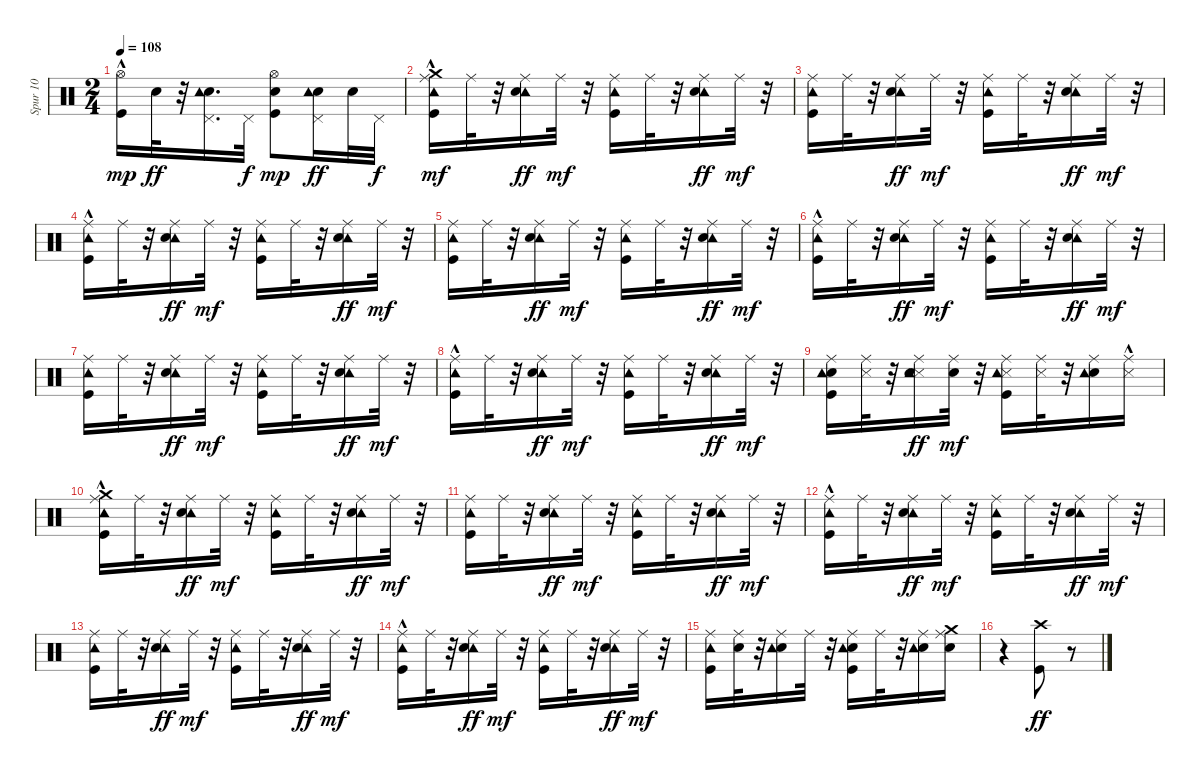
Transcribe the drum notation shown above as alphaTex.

\track ("Spur 10" "Spur 10") {instrument percussion}
\staff {score}
\articulation defaults
\ts (2 4)
\tempo 108
\clef neutral
\ks c
("Hi-Hat (open)"{hac} "Kick (hit)").16{dy mp} "Electric Snare (hit)".32{dy ff} r.32 ("Electric Snare (hit)" "Tambourine (hit)" "Pedal Hi-Hat (hit)").16{d} "Pedal Hi-Hat (hit)".32{dy f} ("Electric Snare (hit)" "Hi-Hat (open)" "Kick (hit)").8{dy mp} ("Electric Snare (hit)" "Tambourine (hit)" "Pedal Hi-Hat (hit)").16{dy ff} "Electric Snare (hit)".32 "Pedal Hi-Hat (hit)".32{dy f} |
("Crash medium (hit)" "Tambourine (hit)" "Ride (middle)" "Kick (hit)"{hac}).16{dy mf} "Ride (middle)".32 r.32 ("Tambourine (hit)" "Ride (middle)" "Electric Snare (hit)").16{dy ff} "Ride (middle)".32{dy mf} r.32 ("Tambourine (hit)" "Ride (middle)" "Kick (hit)").16 "Ride (middle)".32 r.32 ("Tambourine (hit)" "Ride (middle)" "Electric Snare (hit)").16{dy ff} "Ride (middle)".32{dy mf} r.32 |
("Tambourine (hit)" "Ride (middle)" "Kick (hit)").16 "Ride (middle)".32 r.32 ("Tambourine (hit)" "Ride (middle)" "Electric Snare (hit)").16{dy ff} "Ride (middle)".32{dy mf} r.32 ("Tambourine (hit)" "Ride (middle)" "Kick (hit)").16 "Ride (middle)".32 r.32 ("Tambourine (hit)" "Ride (middle)" "Electric Snare (hit)").16{dy ff} "Ride (middle)".32{dy mf} r.32 |
("Tambourine (hit)" "Ride (middle)" "Kick (hit)"{hac}).16 "Ride (middle)".32 r.32 ("Tambourine (hit)" "Ride (middle)" "Electric Snare (hit)").16{dy ff} "Ride (middle)".32{dy mf} r.32 ("Tambourine (hit)" "Ride (middle)" "Kick (hit)").16 "Ride (middle)".32 r.32 ("Tambourine (hit)" "Ride (middle)" "Electric Snare (hit)").16{dy ff} "Ride (middle)".32{dy mf} r.32 |
("Tambourine (hit)" "Ride (middle)" "Kick (hit)").16 "Ride (middle)".32 r.32 ("Tambourine (hit)" "Ride (middle)" "Electric Snare (hit)").16{dy ff} "Ride (middle)".32{dy mf} r.32 ("Tambourine (hit)" "Ride (middle)" "Kick (hit)").16 "Ride (middle)".32 r.32 ("Tambourine (hit)" "Ride (middle)" "Electric Snare (hit)").16{dy ff} "Ride (middle)".32{dy mf} r.32 |
("Tambourine (hit)" "Ride (middle)" "Kick (hit)"{hac}).16 "Ride (middle)".32 r.32 ("Tambourine (hit)" "Ride (middle)" "Electric Snare (hit)").16{dy ff} "Ride (middle)".32{dy mf} r.32 ("Tambourine (hit)" "Ride (middle)" "Kick (hit)").16 "Ride (middle)".32 r.32 ("Tambourine (hit)" "Ride (middle)" "Electric Snare (hit)").16{dy ff} "Ride (middle)".32{dy mf} r.32 |
("Tambourine (hit)" "Ride (middle)" "Kick (hit)").16 "Ride (middle)".32 r.32 ("Tambourine (hit)" "Ride (middle)" "Electric Snare (hit)").16{dy ff} "Ride (middle)".32{dy mf} r.32 ("Tambourine (hit)" "Ride (middle)" "Kick (hit)").16 "Ride (middle)".32 r.32 ("Tambourine (hit)" "Ride (middle)" "Electric Snare (hit)").16{dy ff} "Ride (middle)".32{dy mf} r.32 |
("Tambourine (hit)" "Ride (middle)" "Kick (hit)"{hac}).16 "Ride (middle)".32 r.32 ("Tambourine (hit)" "Ride (middle)" "Electric Snare (hit)").16{dy ff} "Ride (middle)".32{dy mf} r.32 ("Tambourine (hit)" "Ride (middle)" "Kick (hit)").16 "Ride (middle)".32 r.32 ("Tambourine (hit)" "Ride (middle)" "Electric Snare (hit)").16{dy ff} "Ride (middle)".32{dy mf} r.32 |
("Electric Snare (hit)" "Tambourine (hit)" "Ride (middle)" "Kick (hit)").16 ("Snare (side stick) 3" "Ride (middle)").32 r.32 ("Snare (side stick) 3" "Tambourine (hit)" "Ride (middle)" "Electric Snare (hit)").16{dy ff} ("Electric Snare (hit)" "Ride (middle)").32{dy mf} r.32 ("Snare (side stick) 3" "Tambourine (hit)" "Ride (middle)" "Kick (hit)").16 ("Snare (side stick) 3" "Ride (middle)").32 r.32 ("Electric Snare (hit)" "Tambourine (hit)" "Ride (middle)").16 ("Snare (side stick) 3"{hac} "Ride (middle)").16 |
("Crash medium (hit)" "Tambourine (hit)" "Ride (middle)" "Kick (hit)"{hac}).16 "Ride (middle)".32 r.32 ("Tambourine (hit)" "Ride (middle)" "Electric Snare (hit)").16{dy ff} "Ride (middle)".32{dy mf} r.32 ("Tambourine (hit)" "Ride (middle)" "Kick (hit)").16 "Ride (middle)".32 r.32 ("Tambourine (hit)" "Ride (middle)" "Electric Snare (hit)").16{dy ff} "Ride (middle)".32{dy mf} r.32 |
("Tambourine (hit)" "Ride (middle)" "Kick (hit)").16 "Ride (middle)".32 r.32 ("Tambourine (hit)" "Ride (middle)" "Electric Snare (hit)").16{dy ff} "Ride (middle)".32{dy mf} r.32 ("Tambourine (hit)" "Ride (middle)" "Kick (hit)").16 "Ride (middle)".32 r.32 ("Tambourine (hit)" "Ride (middle)" "Electric Snare (hit)").16{dy ff} "Ride (middle)".32{dy mf} r.32 |
("Tambourine (hit)" "Ride (middle)" "Kick (hit)"{hac}).16 "Ride (middle)".32 r.32 ("Tambourine (hit)" "Ride (middle)" "Electric Snare (hit)").16{dy ff} "Ride (middle)".32{dy mf} r.32 ("Tambourine (hit)" "Ride (middle)" "Kick (hit)").16 "Ride (middle)".32 r.32 ("Tambourine (hit)" "Ride (middle)" "Electric Snare (hit)").16{dy ff} "Ride (middle)".32{dy mf} r.32 |
("Tambourine (hit)" "Ride (middle)" "Kick (hit)").16 "Ride (middle)".32 r.32 ("Tambourine (hit)" "Ride (middle)" "Electric Snare (hit)").16{dy ff} "Ride (middle)".32{dy mf} r.32 ("Tambourine (hit)" "Ride (middle)" "Kick (hit)").16 "Ride (middle)".32 r.32 ("Tambourine (hit)" "Ride (middle)" "Electric Snare (hit)").16{dy ff} "Ride (middle)".32{dy mf} r.32 |
("Ride (middle)" "Tambourine (hit)" "Kick (hit)"{hac}).16 "Ride (middle)".32 r.32 ("Ride (middle)" "Tambourine (hit)" "Electric Snare (hit)").16{dy ff} "Ride (middle)".32{dy mf} r.32 ("Ride (middle)" "Tambourine (hit)" "Kick (hit)").16 "Ride (middle)".32 r.32 ("Ride (middle)" "Tambourine (hit)" "Electric Snare (hit)").16{dy ff} "Ride (middle)".32{dy mf} r.32 |
("Tambourine (hit)" "Ride (middle)" "Kick (hit)").16 ("Electric Snare (hit)" "Ride (middle)").32 r.32 ("Electric Snare (hit)" "Tambourine (hit)" "Ride (middle)").16 "Ride (middle)".32 r.32 ("Electric Snare (hit)" "Tambourine (hit)" "Ride (middle)" "Kick (hit)").16 "Ride (middle)".32 r.32 ("Electric Snare (hit)" "Tambourine (hit)" "Ride (middle)").16 ("Electric Snare (hit)" "Crash medium (hit)" "Ride (middle)").16 |
r.4 ("Crash high (hit)" "Kick (hit)").8{dy ff} r.8
